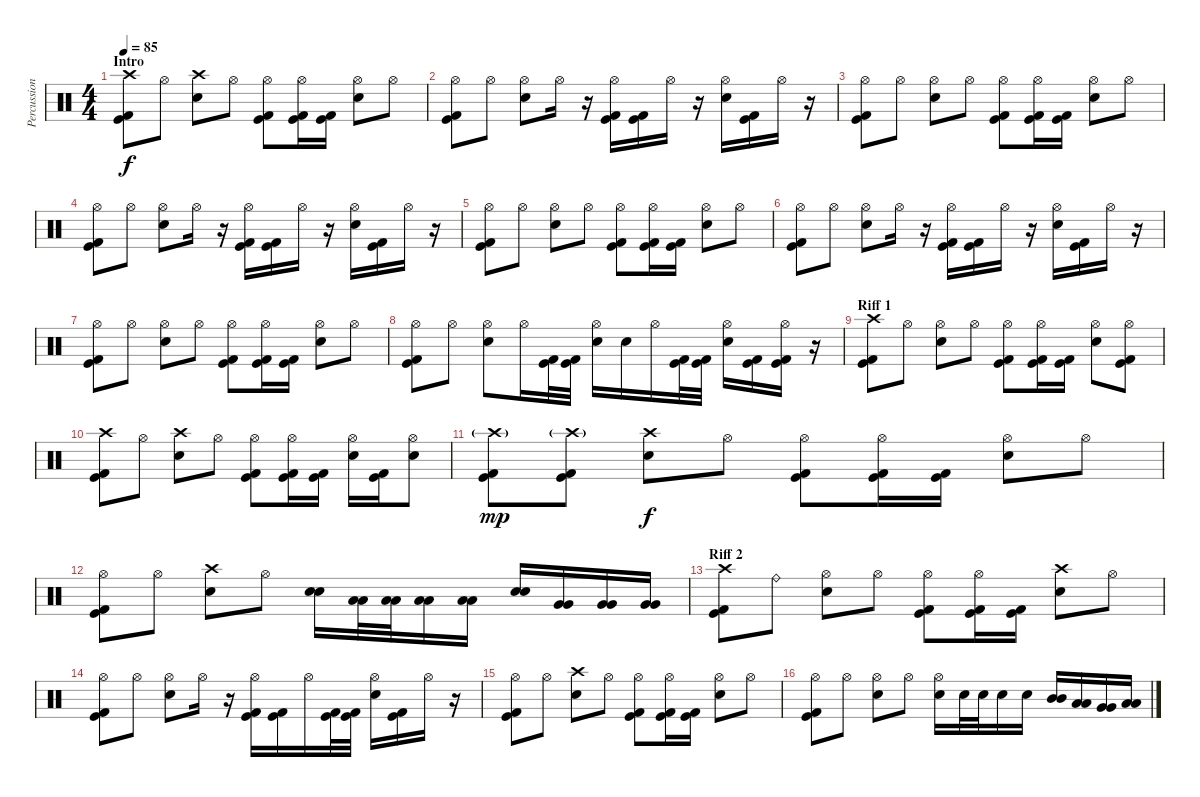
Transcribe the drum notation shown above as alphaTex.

\track ("Percussion" "Percussion") {instrument percussion}
\staff {score}
\articulation defaults
\ts (4 4)
\section ("" "Intro")
\tempo 85
\clef neutral
\ks c
("Crash high (hit)" "Kick (hit) 2" "Kick (hit)").8{dy f} "Hi-Hat (open)".8 ("Crash high (hit)" "Electric Snare (hit)").8 "Hi-Hat (open)".8 ("Hi-Hat (open)" "Kick (hit) 2" "Kick (hit)").8 ("Hi-Hat (open)" "Kick (hit) 2" "Kick (hit)").16 ("Kick (hit) 2" "Kick (hit)").16 ("Hi-Hat (open)" "Electric Snare (hit)").8 "Hi-Hat (open)".8 |
("Hi-Hat (open)" "Kick (hit) 2" "Kick (hit)").8 "Hi-Hat (open)".8 ("Hi-Hat (open)" "Electric Snare (hit)").8 "Hi-Hat (open)".16 r.16 ("Hi-Hat (open)" "Kick (hit) 2" "Kick (hit)").16 ("Kick (hit) 2" "Kick (hit)").16 "Hi-Hat (open)".16 r.16 ("Hi-Hat (open)" "Electric Snare (hit)").16 ("Kick (hit) 2" "Kick (hit)").16 "Hi-Hat (open)".16 r.16 |
("Hi-Hat (open)" "Kick (hit) 2" "Kick (hit)").8 "Hi-Hat (open)".8 ("Hi-Hat (open)" "Electric Snare (hit)").8 "Hi-Hat (open)".8 ("Hi-Hat (open)" "Kick (hit) 2" "Kick (hit)").8 ("Hi-Hat (open)" "Kick (hit) 2" "Kick (hit)").16 ("Kick (hit) 2" "Kick (hit)").16 ("Hi-Hat (open)" "Electric Snare (hit)").8 "Hi-Hat (open)".8 |
("Hi-Hat (open)" "Kick (hit) 2" "Kick (hit)").8 "Hi-Hat (open)".8 ("Hi-Hat (open)" "Electric Snare (hit)").8 "Hi-Hat (open)".16 r.16 ("Hi-Hat (open)" "Kick (hit) 2" "Kick (hit)").16 ("Kick (hit) 2" "Kick (hit)").16 "Hi-Hat (open)".16 r.16 ("Hi-Hat (open)" "Electric Snare (hit)").16 ("Kick (hit) 2" "Kick (hit)").16 "Hi-Hat (open)".16 r.16 |
("Hi-Hat (open)" "Kick (hit) 2" "Kick (hit)").8 "Hi-Hat (open)".8 ("Hi-Hat (open)" "Electric Snare (hit)").8 "Hi-Hat (open)".8 ("Hi-Hat (open)" "Kick (hit) 2" "Kick (hit)").8 ("Hi-Hat (open)" "Kick (hit) 2" "Kick (hit)").16 ("Kick (hit) 2" "Kick (hit)").16 ("Hi-Hat (open)" "Electric Snare (hit)").8 "Hi-Hat (open)".8 |
("Hi-Hat (open)" "Kick (hit) 2" "Kick (hit)").8 "Hi-Hat (open)".8 ("Hi-Hat (open)" "Electric Snare (hit)").8 "Hi-Hat (open)".16 r.16 ("Hi-Hat (open)" "Kick (hit) 2" "Kick (hit)").16 ("Kick (hit) 2" "Kick (hit)").16 "Hi-Hat (open)".16 r.16 ("Hi-Hat (open)" "Electric Snare (hit)").16 ("Kick (hit) 2" "Kick (hit)").16 "Hi-Hat (open)".16 r.16 |
("Hi-Hat (open)" "Kick (hit) 2" "Kick (hit)").8 "Hi-Hat (open)".8 ("Hi-Hat (open)" "Electric Snare (hit)").8 "Hi-Hat (open)".8 ("Hi-Hat (open)" "Kick (hit) 2" "Kick (hit)").8 ("Hi-Hat (open)" "Kick (hit) 2" "Kick (hit)").16 ("Kick (hit) 2" "Kick (hit)").16 ("Hi-Hat (open)" "Electric Snare (hit)").8 "Hi-Hat (open)".8 |
("Hi-Hat (open)" "Kick (hit) 2" "Kick (hit)").8 "Hi-Hat (open)".8 ("Hi-Hat (open)" "Electric Snare (hit)").8 "Hi-Hat (open)".16 ("Kick (hit) 2" "Kick (hit)").32 ("Kick (hit) 2" "Kick (hit)").32 ("Hi-Hat (open)" "Electric Snare (hit)").16 "Electric Snare (hit)".16 "Hi-Hat (open)".16 ("Kick (hit) 2" "Kick (hit)").32 ("Kick (hit) 2" "Kick (hit)").32 ("Hi-Hat (open)" "Electric Snare (hit)").16 ("Kick (hit) 2" "Kick (hit)").16 ("Hi-Hat (open)" "Kick (hit) 2" "Kick (hit)").16 r.16 |
\section ("" "Riff 1")
("Crash high (hit)" "Kick (hit) 2" "Kick (hit)").8 "Hi-Hat (open)".8 ("Hi-Hat (open)" "Electric Snare (hit)").8 "Hi-Hat (open)".8 ("Hi-Hat (open)" "Kick (hit) 2" "Kick (hit)").8 ("Hi-Hat (open)" "Kick (hit) 2" "Kick (hit)").16 ("Kick (hit) 2" "Kick (hit)").16 ("Hi-Hat (open)" "Electric Snare (hit)").8 ("Hi-Hat (open)" "Kick (hit) 2" "Kick (hit)").8 |
("Crash high (hit)" "Kick (hit) 2" "Kick (hit)").8 "Hi-Hat (open)".8 ("Crash high (hit)" "Electric Snare (hit)").8 "Hi-Hat (open)".8 ("Hi-Hat (open)" "Kick (hit) 2" "Kick (hit)").8 ("Hi-Hat (open)" "Kick (hit) 2" "Kick (hit)").16 ("Kick (hit) 2" "Kick (hit)").16 ("Hi-Hat (open)" "Electric Snare (hit)").16 ("Kick (hit) 2" "Kick (hit)").16 ("Hi-Hat (open)" "Electric Snare (hit)").8 |
("Crash high (hit)"{g} "Kick (hit) 2" "Kick (hit)").8{dy mp} ("Crash high (hit)"{g} "Kick (hit) 2" "Kick (hit)").8 ("Crash high (hit)" "Electric Snare (hit)").8{dy f} "Hi-Hat (open)".8 ("Hi-Hat (open)" "Kick (hit) 2" "Kick (hit)").8 ("Hi-Hat (open)" "Kick (hit) 2" "Kick (hit)").16 ("Kick (hit) 2" "Kick (hit)").16 ("Hi-Hat (open)" "Electric Snare (hit)").8 "Hi-Hat (open)".8 |
("Hi-Hat (open)" "Kick (hit) 2" "Kick (hit)").8 "Hi-Hat (open)".8 ("Crash high (hit)" "Electric Snare (hit)").8 "Hi-Hat (open)".8 ("Electric Snare (hit)" "Electric Snare (hit)").16 ("Low Tom (hit)" "Low Tom (hit)").32 ("Low Tom (hit)" "Low Tom (hit)").32 ("Low Tom (hit)" "Low Tom (hit)").16 ("Low Tom (hit)" "Low Tom (hit)").16 ("Electric Snare (hit)" "Electric Snare (hit)").16 ("Very Low Tom (hit)" "Very Low Tom (hit)").16 ("Very Low Tom (hit)" "Very Low Tom (hit)").16 ("Very Low Tom (hit)" "Very Low Tom (hit)").16 |
\section ("" "Riff 2")
("Crash high (hit)" "Kick (hit) 2" "Kick (hit)").8 "Ride (bell)".8 ("Hi-Hat (open)" "Electric Snare (hit)").8 "Hi-Hat (open)".8 ("Hi-Hat (open)" "Kick (hit) 2" "Kick (hit)").8 ("Hi-Hat (open)" "Kick (hit) 2" "Kick (hit)").16 ("Kick (hit) 2" "Kick (hit)").16 ("Crash high (hit)" "Electric Snare (hit)").8 "Hi-Hat (open)".8 |
("Hi-Hat (open)" "Kick (hit) 2" "Kick (hit)").8 "Hi-Hat (open)".8 ("Hi-Hat (open)" "Electric Snare (hit)").8 "Hi-Hat (open)".16 r.16 ("Hi-Hat (open)" "Kick (hit) 2" "Kick (hit)").16 ("Kick (hit) 2" "Kick (hit)").16 "Hi-Hat (open)".16 ("Kick (hit) 2" "Kick (hit)").32 ("Kick (hit) 2" "Kick (hit)").32 ("Hi-Hat (open)" "Electric Snare (hit)").16 ("Kick (hit) 2" "Kick (hit)").16 "Hi-Hat (open)".16 r.16 |
("Hi-Hat (open)" "Kick (hit) 2" "Kick (hit)").8 "Hi-Hat (open)".8 ("Crash high (hit)" "Electric Snare (hit)").8 "Hi-Hat (open)".8 ("Hi-Hat (open)" "Kick (hit) 2" "Kick (hit)").8 ("Hi-Hat (open)" "Kick (hit) 2" "Kick (hit)").16 ("Kick (hit) 2" "Kick (hit)").16 ("Hi-Hat (open)" "Electric Snare (hit)").8 "Hi-Hat (open)".8 |
("Hi-Hat (open)" "Kick (hit) 2" "Kick (hit)").8 "Hi-Hat (open)".8 ("Hi-Hat (open)" "Electric Snare (hit)").8 "Hi-Hat (open)".8 ("Hi-Hat (open)" "Electric Snare (hit)").16 "Electric Snare (hit)".32 "Electric Snare (hit)".32 "Electric Snare (hit)".16 "Electric Snare (hit)".16 ("Mid Tom (hit)" "Mid Tom (hit)").16 ("Low Tom (hit)" "Low Tom (hit)").16 ("Very Low Tom (hit)" "Very Low Tom (hit)").16 ("Low Floor Tom (hit)" "Low Floor Tom (hit)").16
